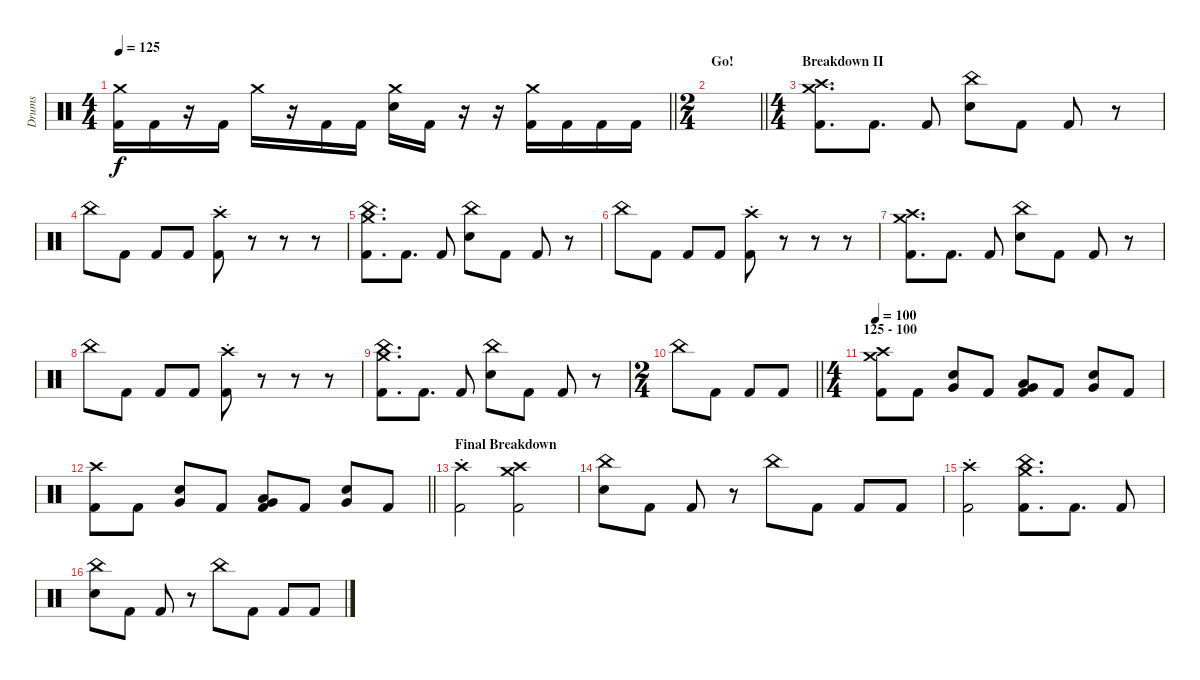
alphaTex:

\track ("Drums" "Drums") {instrument percussion}
\staff {score}
\articulation defaults
\ts (4 4)
\tempo 125
\clef neutral
\barLineRight lightlight
\ks c
("Crash medium (hit)" "Kick (hit) 2").16{dy f} "Kick (hit) 2".16 r.16 "Kick (hit) 2".16 "Crash medium (hit)".16 r.16 "Kick (hit) 2".16 "Kick (hit) 2".16 ("Crash medium (hit)" "Snare (hit) 2").16 "Kick (hit) 2".16 r.16 r.16 ("Crash medium (hit)" "Kick (hit) 2").16 "Kick (hit) 2".16 "Kick (hit) 2".16 "Kick (hit) 2".16 |
\ts (2 4)
\section ("" "Go! ")
\barLineRight lightlight
|
\ts (4 4)
\section ("" "Breakdown II")
("Crash medium (hit)" "Crash high (hit)" "Kick (hit) 2").8{d} "Kick (hit) 2".8{d} "Kick (hit) 2".8 ("China (hit)" "Snare (hit) 2").8 "Kick (hit) 2".8 "Kick (hit) 2".8 r.8 |
"China (hit)".8 "Kick (hit) 2".8 "Kick (hit) 2".8 "Kick (hit) 2".8 ("Crash high (hit)"{st} "Kick (hit) 2").8 r.8 r.8 r.8 |
("China (hit)" "Crash medium (hit)" "Kick (hit) 2").8{d} "Kick (hit) 2".8{d} "Kick (hit) 2".8 ("China (hit)" "Snare (hit) 2").8 "Kick (hit) 2".8 "Kick (hit) 2".8 r.8 |
"China (hit)".8 "Kick (hit) 2".8 "Kick (hit) 2".8 "Kick (hit) 2".8 ("Crash high (hit)"{st} "Kick (hit) 2").8 r.8 r.8 r.8 |
("Crash medium (hit)" "Crash high (hit)" "Kick (hit) 2").8{d} "Kick (hit) 2".8{d} "Kick (hit) 2".8 ("China (hit)" "Snare (hit) 2").8 "Kick (hit) 2".8 "Kick (hit) 2".8 r.8 |
"China (hit)".8 "Kick (hit) 2".8 "Kick (hit) 2".8 "Kick (hit) 2".8 ("Crash high (hit)"{st} "Kick (hit) 2").8 r.8 r.8 r.8 |
("China (hit)" "Crash medium (hit)" "Kick (hit) 2").8{d} "Kick (hit) 2".8{d} "Kick (hit) 2".8 ("China (hit)" "Snare (hit) 2").8 "Kick (hit) 2".8 "Kick (hit) 2".8 r.8 |
\ts (2 4)
\barLineRight lightlight "China (hit)".8 "Kick (hit) 2".8 "Kick (hit) 2".8 "Kick (hit) 2".8
|
\ts (4 4)
\section ("" "125 - 100 ")
\tempo 100
("Crash medium (hit)" "Crash high (hit)" "Kick (hit) 2").8 "Kick (hit) 2".8 ("Very Low Tom (hit)" "Snare (hit) 2").8 "Kick (hit) 2".8 ("Very Low Tom (hit)" "Low Tom (hit)" "Kick (hit) 2").8 "Kick (hit) 2".8 ("Very Low Tom (hit)" "Snare (hit) 2").8 "Kick (hit) 2".8 |
\barLineRight lightlight
("Crash high (hit)" "Kick (hit) 2").8 "Kick (hit) 2".8 ("Very Low Tom (hit)" "Snare (hit) 2").8 "Kick (hit) 2".8 ("Very Low Tom (hit)" "Low Tom (hit)" "Kick (hit) 2").8 "Kick (hit) 2".8 ("Very Low Tom (hit)" "Snare (hit) 2").8 "Kick (hit) 2".8 |
\section ("" "Final Breakdown ")
("Crash high (hit)"{st} "Kick (hit) 2").2 ("Crash medium (hit)" "Crash high (hit)" "Kick (hit) 2").2 |
("China (hit)" "Snare (hit) 2").8 "Kick (hit) 2".8 "Kick (hit) 2".8 r.8 "China (hit)".8 "Kick (hit) 2".8 "Kick (hit) 2".8 "Kick (hit) 2".8 |
("Crash high (hit)"{st} "Kick (hit) 2").2 ("Crash medium (hit)" "China (hit)" "Kick (hit) 2").8{d} "Kick (hit) 2".8{d} "Kick (hit) 2".8 |
("China (hit)" "Snare (hit) 2").8 "Kick (hit) 2".8 "Kick (hit) 2".8 r.8 "China (hit)".8 "Kick (hit) 2".8 "Kick (hit) 2".8 "Kick (hit) 2".8
